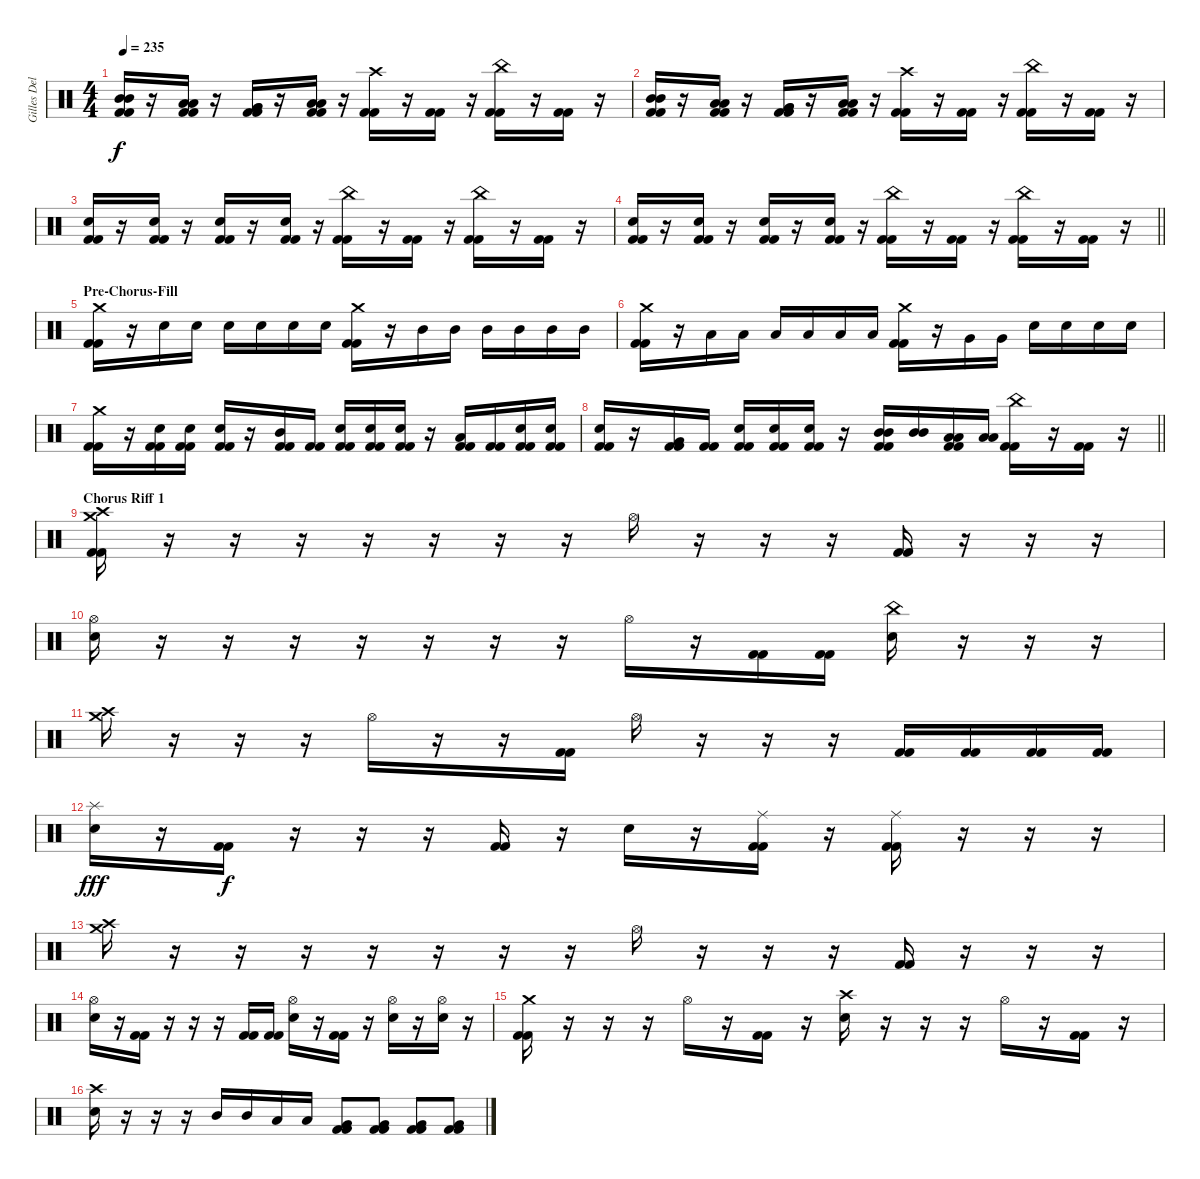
\track ("Gilles Delecroix" "Gilles Del") {instrument percussion}
\staff {score}
\articulation defaults
\ts (4 4)
\tempo 235
\clef neutral
\ks c
("Mid Tom (hit)" "Mid Tom (hit)" "Kick (hit) 2" "Kick (hit) 2").16{dy f} r.16 ("Low Tom (hit)" "Low Tom (hit)" "Kick (hit) 2" "Kick (hit) 2").16 r.16 ("Very Low Tom (hit)" "Very Low Tom (hit)" "Kick (hit) 2" "Kick (hit) 2").16 r.16 ("Low Floor Tom (hit)" "Low Floor Tom (hit)" "Kick (hit) 2" "Kick (hit) 2").16 r.16 ("Crash high (hit)" "Kick (hit) 2" "Kick (hit) 2").16 r.16 ("Kick (hit) 2" "Kick (hit) 2").16 r.16 ("China (hit)" "Kick (hit) 2" "Kick (hit) 2").16 r.16 ("Kick (hit) 2" "Kick (hit) 2").16 r.16 |
("Mid Tom (hit)" "Mid Tom (hit)" "Kick (hit) 2" "Kick (hit) 2").16 r.16 ("Low Tom (hit)" "Low Tom (hit)" "Kick (hit) 2" "Kick (hit) 2").16 r.16 ("Very Low Tom (hit)" "Very Low Tom (hit)" "Kick (hit) 2" "Kick (hit) 2").16 r.16 ("Low Floor Tom (hit)" "Low Floor Tom (hit)" "Kick (hit) 2" "Kick (hit) 2").16 r.16 ("Crash high (hit)" "Kick (hit) 2" "Kick (hit) 2").16 r.16 ("Kick (hit) 2" "Kick (hit) 2").16 r.16 ("China (hit)" "Kick (hit) 2" "Kick (hit) 2").16 r.16 ("Kick (hit) 2" "Kick (hit) 2").16 r.16 |
("Electric Snare (hit)" "Kick (hit) 2" "Kick (hit) 2").16 r.16 ("Electric Snare (hit)" "Kick (hit) 2" "Kick (hit) 2").16 r.16 ("Electric Snare (hit)" "Kick (hit) 2" "Kick (hit) 2").16 r.16 ("Electric Snare (hit)" "Kick (hit) 2" "Kick (hit) 2").16 r.16 ("China (hit)" "Kick (hit) 2" "Kick (hit) 2").16 r.16 ("Kick (hit) 2" "Kick (hit) 2").16 r.16 ("China (hit)" "Kick (hit) 2" "Kick (hit) 2").16 r.16 ("Kick (hit) 2" "Kick (hit) 2").16 r.16 |
\barLineRight lightlight
("Electric Snare (hit)" "Kick (hit) 2" "Kick (hit) 2").16 r.16 ("Electric Snare (hit)" "Kick (hit) 2" "Kick (hit) 2").16 r.16 ("Electric Snare (hit)" "Kick (hit) 2" "Kick (hit) 2").16 r.16 ("Electric Snare (hit)" "Kick (hit) 2" "Kick (hit) 2").16 r.16 ("China (hit)" "Kick (hit) 2" "Kick (hit) 2").16 r.16 ("Kick (hit) 2" "Kick (hit) 2").16 r.16 ("China (hit)" "Kick (hit) 2" "Kick (hit) 2").16 r.16 ("Kick (hit) 2" "Kick (hit) 2").16 r.16 |
\section ("" "Pre-Chorus-Fill")
("Crash medium (hit)" "Kick (hit) 2" "Kick (hit) 2").16 r.16 "Electric Snare (hit)".16 "Electric Snare (hit)".16 "Electric Snare (hit)".16 "Electric Snare (hit)".16 "Electric Snare (hit)".16 "Electric Snare (hit)".16 ("Crash medium (hit)" "Kick (hit) 2" "Kick (hit) 2").16 r.16 "Mid Tom (hit)".16 "Mid Tom (hit)".16 "Mid Tom (hit)".16 "Mid Tom (hit)".16 "Mid Tom (hit)".16 "Mid Tom (hit)".16 |
("Crash medium (hit)" "Kick (hit) 2" "Kick (hit) 2").16 r.16 "Low Tom (hit)".16 "Low Tom (hit)".16 "Low Tom (hit)".16 "Low Tom (hit)".16 "Low Tom (hit)".16 "Low Tom (hit)".16 ("Crash medium (hit)" "Kick (hit) 2" "Kick (hit) 2").16 r.16 "Very Low Tom (hit)".16 "Very Low Tom (hit)".16 "Electric Snare (hit)".16 "Electric Snare (hit)".16 "Electric Snare (hit)".16 "Electric Snare (hit)".16 |
("Crash medium (hit)" "Kick (hit) 2" "Kick (hit) 2").16 r.16 ("Electric Snare (hit)" "Kick (hit) 2" "Kick (hit) 2").16 ("Electric Snare (hit)" "Kick (hit) 2" "Kick (hit) 2").16 ("Electric Snare (hit)" "Kick (hit) 2" "Kick (hit) 2").16 r.16 ("Mid Tom (hit)" "Kick (hit) 2" "Kick (hit) 2").16 ("Kick (hit) 2" "Kick (hit) 2").16 ("Electric Snare (hit)" "Kick (hit) 2" "Kick (hit) 2").16 ("Electric Snare (hit)" "Kick (hit) 2" "Kick (hit) 2").16 ("Electric Snare (hit)" "Kick (hit) 2" "Kick (hit) 2").16 r.16 ("Low Tom (hit)" "Kick (hit) 2" "Kick (hit) 2").16 ("Kick (hit) 2" "Kick (hit) 2").16 ("Electric Snare (hit)" "Kick (hit) 2" "Kick (hit) 2").16 ("Electric Snare (hit)" "Kick (hit) 2" "Kick (hit) 2").16 |
\barLineRight lightlight
("Electric Snare (hit)" "Kick (hit) 2" "Kick (hit) 2").16 r.16 ("Very Low Tom (hit)" "Kick (hit) 2" "Kick (hit) 2").16 ("Kick (hit) 2" "Kick (hit) 2").16 ("Electric Snare (hit)" "Kick (hit) 2" "Kick (hit) 2").16 ("Electric Snare (hit)" "Kick (hit) 2" "Kick (hit) 2").16 ("Electric Snare (hit)" "Kick (hit) 2" "Kick (hit) 2").16 r.16 ("Mid Tom (hit)" "Mid Tom (hit)" "Kick (hit) 2" "Kick (hit) 2").16 ("Mid Tom (hit)" "Mid Tom (hit)").16 ("Low Tom (hit)" "Low Tom (hit)" "Kick (hit) 2" "Kick (hit) 2").16 ("Low Tom (hit)" "Low Tom (hit)").16 ("China (hit)" "Kick (hit) 2" "Kick (hit) 2").16 r.16 ("Kick (hit) 2" "Kick (hit) 2").16 r.16 |
\section ("" "Chorus Riff 1")
("Crash medium (hit)" "Crash high (hit)" "Kick (hit) 2" "Kick (hit) 2").16 r.16 r.16 r.16 r.16 r.16 r.16 r.16 "Hi-Hat (open)".16 r.16 r.16 r.16 ("Kick (hit) 2" "Kick (hit) 2").16 r.16 r.16 r.16 |
("Electric Snare (hit)" "Hi-Hat (open)").16 r.16 r.16 r.16 r.16 r.16 r.16 r.16 "Hi-Hat (open)".16 r.16 ("Kick (hit) 2" "Kick (hit) 2").16 ("Kick (hit) 2" "Kick (hit) 2").16 ("China (hit)" "Electric Snare (hit)").16 r.16 r.16 r.16 |
("Crash medium (hit)" "Crash high (hit)").16 r.16 r.16 r.16 "Hi-Hat (open)".16 r.16 r.16 ("Kick (hit) 2" "Kick (hit) 2").16 "Hi-Hat (open)".16 r.16 r.16 r.16 ("Kick (hit) 2" "Kick (hit) 2").16 ("Kick (hit) 2" "Kick (hit) 2").16 ("Kick (hit) 2" "Kick (hit) 2").16 ("Kick (hit) 2" "Kick (hit) 2").16 |
("Splash (hit)" "Electric Snare (hit)").16{dy fff} r.16 ("Kick (hit) 2" "Kick (hit) 2").16{dy f} r.16 r.16 r.16 ("Kick (hit) 2" "Kick (hit) 2").16 r.16 "Electric Snare (hit)".16 r.16 ("Ride (middle)" "Kick (hit) 2" "Kick (hit) 2").16 r.16 ("Ride (middle)" "Kick (hit) 2" "Kick (hit) 2").16 r.16 r.16 r.16 |
("Crash medium (hit)" "Crash high (hit)").16 r.16 r.16 r.16 r.16 r.16 r.16 r.16 "Hi-Hat (open)".16 r.16 r.16 r.16 ("Kick (hit) 2" "Kick (hit) 2").16 r.16 r.16 r.16 |
("Hi-Hat (open)" "Electric Snare (hit)").16 r.16 ("Kick (hit) 2" "Kick (hit) 2").16 r.16 r.16 r.16 ("Kick (hit) 2" "Kick (hit) 2").16 ("Kick (hit) 2" "Kick (hit) 2").16 ("Hi-Hat (open)" "Electric Snare (hit)").16 r.16 ("Kick (hit) 2" "Kick (hit) 2").16 r.16 ("Hi-Hat (open)" "Electric Snare (hit)").16 r.16 ("Hi-Hat (open)" "Electric Snare (hit)").16 r.16 |
("Crash medium (hit)" "Kick (hit) 2" "Kick (hit) 2").16 r.16 r.16 r.16 "Hi-Hat (open)".16 r.16 ("Kick (hit) 2" "Kick (hit) 2").16 r.16 ("Crash high (hit)" "Electric Snare (hit)").16 r.16 r.16 r.16 "Hi-Hat (open)".16 r.16 ("Kick (hit) 2" "Kick (hit) 2").16 r.16 |
("Crash high (hit)" "Electric Snare (hit)").16 r.16 r.16 r.16 "Mid Tom (hit)".16 "Mid Tom (hit)".16 "Low Tom (hit)".16 "Low Tom (hit)".16 ("Very Low Tom (hit)" "Kick (hit) 2" "Kick (hit) 2").8 ("Very Low Tom (hit)" "Kick (hit) 2" "Kick (hit) 2").8 ("Very Low Tom (hit)" "Kick (hit) 2" "Kick (hit) 2").8 ("Very Low Tom (hit)" "Kick (hit) 2" "Kick (hit) 2").8
